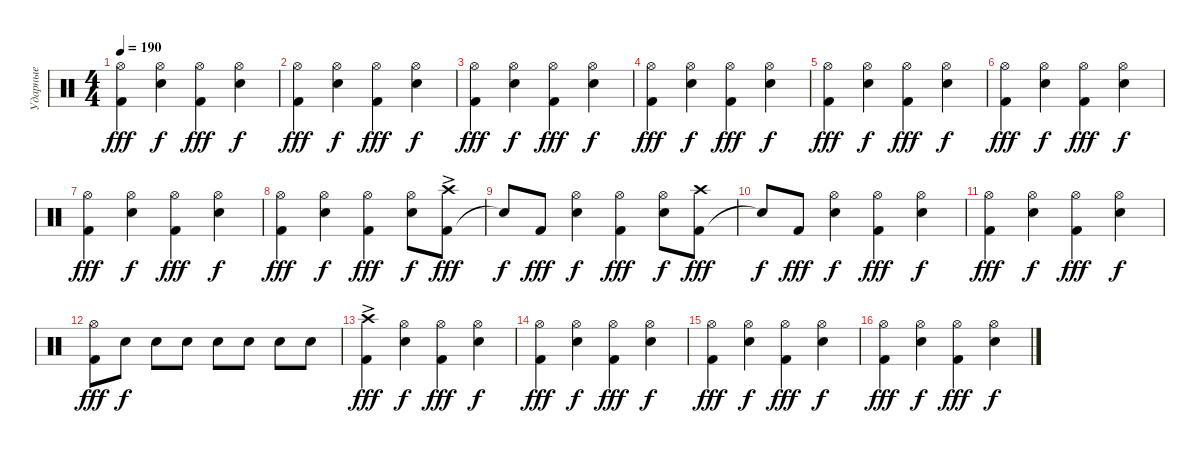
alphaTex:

\track ("Ударные" "Ударные") {instrument percussion}
\staff {score}
\articulation defaults
\ts (4 4)
\tempo 190
\clef neutral
\ks c
("Kick (hit) 2" "Hi-Hat (open)").4{dy fff} ("Snare (hit) 2" "Hi-Hat (open)").4{dy f} ("Kick (hit) 2" "Hi-Hat (open)").4{dy fff} ("Snare (hit) 2" "Hi-Hat (open)").4{dy f} |
("Kick (hit) 2" "Hi-Hat (open)").4{dy fff} ("Snare (hit) 2" "Hi-Hat (open)").4{dy f} ("Kick (hit) 2" "Hi-Hat (open)").4{dy fff} ("Snare (hit) 2" "Hi-Hat (open)").4{dy f} |
("Kick (hit) 2" "Hi-Hat (open)").4{dy fff} ("Snare (hit) 2" "Hi-Hat (open)").4{dy f} ("Kick (hit) 2" "Hi-Hat (open)").4{dy fff} ("Snare (hit) 2" "Hi-Hat (open)").4{dy f} |
("Kick (hit) 2" "Hi-Hat (open)").4{dy fff} ("Snare (hit) 2" "Hi-Hat (open)").4{dy f} ("Kick (hit) 2" "Hi-Hat (open)").4{dy fff} ("Snare (hit) 2" "Hi-Hat (open)").4{dy f} |
("Kick (hit) 2" "Hi-Hat (open)").4{dy fff} ("Snare (hit) 2" "Hi-Hat (open)").4{dy f} ("Kick (hit) 2" "Hi-Hat (open)").4{dy fff} ("Snare (hit) 2" "Hi-Hat (open)").4{dy f} |
("Kick (hit) 2" "Hi-Hat (open)").4{dy fff} ("Snare (hit) 2" "Hi-Hat (open)").4{dy f} ("Kick (hit) 2" "Hi-Hat (open)").4{dy fff} ("Snare (hit) 2" "Hi-Hat (open)").4{dy f} |
("Kick (hit) 2" "Hi-Hat (open)").4{dy fff} ("Snare (hit) 2" "Hi-Hat (open)").4{dy f} ("Kick (hit) 2" "Hi-Hat (open)").4{dy fff} ("Snare (hit) 2" "Hi-Hat (open)").4{dy f} |
("Kick (hit) 2" "Hi-Hat (open)").4{dy fff} ("Snare (hit) 2" "Hi-Hat (open)").4{dy f} ("Kick (hit) 2" "Hi-Hat (open)").4{dy fff} ("Snare (hit) 2" "Hi-Hat (open)").8{dy f} ("Kick (hit) 2" "Crash high (hit)"{ac}).8{dy fff} |
"Snare (hit)"{t}.8{dy f} "Kick (hit) 2".8{dy fff} ("Snare (hit) 2" "Hi-Hat (open)").4{dy f} ("Kick (hit) 2" "Hi-Hat (open)").4{dy fff} ("Snare (hit) 2" "Hi-Hat (open)").8{dy f} ("Kick (hit) 2" "Crash high (hit)").8{dy fff} |
"Snare (hit)"{t}.8{dy f} "Kick (hit) 2".8{dy fff} ("Snare (hit) 2" "Hi-Hat (open)").4{dy f} ("Kick (hit) 2" "Hi-Hat (open)").4{dy fff} ("Snare (hit) 2" "Hi-Hat (open)").4{dy f} |
("Kick (hit) 2" "Hi-Hat (open)").4{dy fff} ("Snare (hit) 2" "Hi-Hat (open)").4{dy f} ("Kick (hit) 2" "Hi-Hat (open)").4{dy fff} ("Snare (hit) 2" "Hi-Hat (open)").4{dy f} |
("Kick (hit) 2" "Hi-Hat (open)").8{dy fff} "Snare (hit) 2".8{dy f} "Snare (hit) 2".8 "Snare (hit) 2".8 "Snare (hit) 2".8 "Snare (hit) 2".8 "Snare (hit) 2".8 "Snare (hit) 2".8 |
("Kick (hit) 2" "Crash high (hit)"{ac}).4{dy fff} ("Snare (hit) 2" "Hi-Hat (open)").4{dy f} ("Kick (hit) 2" "Hi-Hat (open)").4{dy fff} ("Snare (hit) 2" "Hi-Hat (open)").4{dy f} |
("Kick (hit) 2" "Hi-Hat (open)").4{dy fff} ("Snare (hit) 2" "Hi-Hat (open)").4{dy f} ("Kick (hit) 2" "Hi-Hat (open)").4{dy fff} ("Snare (hit) 2" "Hi-Hat (open)").4{dy f} |
("Kick (hit) 2" "Hi-Hat (open)").4{dy fff} ("Snare (hit) 2" "Hi-Hat (open)").4{dy f} ("Kick (hit) 2" "Hi-Hat (open)").4{dy fff} ("Snare (hit) 2" "Hi-Hat (open)").4{dy f} |
("Kick (hit) 2" "Hi-Hat (open)").4{dy fff} ("Snare (hit) 2" "Hi-Hat (open)").4{dy f} ("Kick (hit) 2" "Hi-Hat (open)").4{dy fff} ("Snare (hit) 2" "Hi-Hat (open)").4{dy f}
